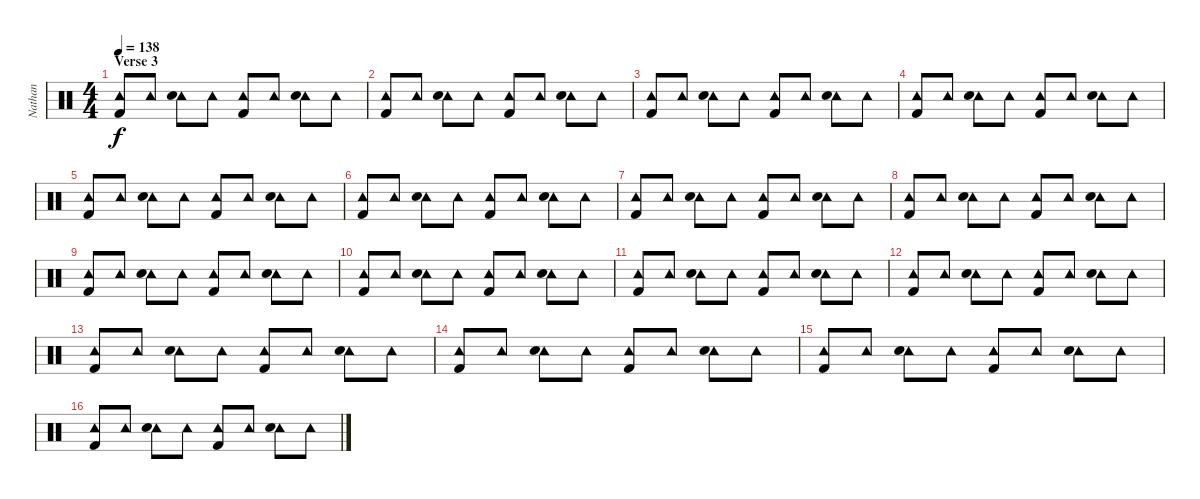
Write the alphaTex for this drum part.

\track ("Nathan" "Nathan") {instrument percussion}
\staff {score}
\articulation defaults
\ts (4 4)
\section ("" "Verse 3")
\tempo 138
\clef neutral
\ks c
("Tambourine (hit)" "Kick (hit) 2").8{dy f} "Tambourine (hit)".8 ("Tambourine (hit)" "Electric Snare (hit)").8 "Tambourine (hit)".8 ("Tambourine (hit)" "Kick (hit) 2").8 "Tambourine (hit)".8 ("Tambourine (hit)" "Electric Snare (hit)").8 "Tambourine (hit)".8 |
("Tambourine (hit)" "Kick (hit) 2").8 "Tambourine (hit)".8 ("Tambourine (hit)" "Electric Snare (hit)").8 "Tambourine (hit)".8 ("Tambourine (hit)" "Kick (hit) 2").8 "Tambourine (hit)".8 ("Tambourine (hit)" "Electric Snare (hit)").8 "Tambourine (hit)".8 |
("Tambourine (hit)" "Kick (hit) 2").8 "Tambourine (hit)".8 ("Tambourine (hit)" "Electric Snare (hit)").8 "Tambourine (hit)".8 ("Tambourine (hit)" "Kick (hit) 2").8 "Tambourine (hit)".8 ("Tambourine (hit)" "Electric Snare (hit)").8 "Tambourine (hit)".8 |
("Tambourine (hit)" "Kick (hit) 2").8 "Tambourine (hit)".8 ("Tambourine (hit)" "Electric Snare (hit)").8 "Tambourine (hit)".8 ("Tambourine (hit)" "Kick (hit) 2").8 "Tambourine (hit)".8 ("Tambourine (hit)" "Electric Snare (hit)").8 "Tambourine (hit)".8 |
("Tambourine (hit)" "Kick (hit) 2").8 "Tambourine (hit)".8 ("Tambourine (hit)" "Electric Snare (hit)").8 "Tambourine (hit)".8 ("Tambourine (hit)" "Kick (hit) 2").8 "Tambourine (hit)".8 ("Tambourine (hit)" "Electric Snare (hit)").8 "Tambourine (hit)".8 |
("Tambourine (hit)" "Kick (hit) 2").8 "Tambourine (hit)".8 ("Tambourine (hit)" "Electric Snare (hit)").8 "Tambourine (hit)".8 ("Tambourine (hit)" "Kick (hit) 2").8 "Tambourine (hit)".8 ("Tambourine (hit)" "Electric Snare (hit)").8 "Tambourine (hit)".8 |
("Tambourine (hit)" "Kick (hit) 2").8 "Tambourine (hit)".8 ("Tambourine (hit)" "Electric Snare (hit)").8 "Tambourine (hit)".8 ("Tambourine (hit)" "Kick (hit) 2").8 "Tambourine (hit)".8 ("Tambourine (hit)" "Electric Snare (hit)").8 "Tambourine (hit)".8 |
("Tambourine (hit)" "Kick (hit) 2").8 "Tambourine (hit)".8 ("Tambourine (hit)" "Electric Snare (hit)").8 "Tambourine (hit)".8 ("Tambourine (hit)" "Kick (hit) 2").8 "Tambourine (hit)".8 ("Tambourine (hit)" "Electric Snare (hit)").8 "Tambourine (hit)".8 |
("Tambourine (hit)" "Kick (hit) 2").8 "Tambourine (hit)".8 ("Tambourine (hit)" "Electric Snare (hit)").8 "Tambourine (hit)".8 ("Tambourine (hit)" "Kick (hit) 2").8 "Tambourine (hit)".8 ("Tambourine (hit)" "Electric Snare (hit)").8 "Tambourine (hit)".8 |
("Tambourine (hit)" "Kick (hit) 2").8 "Tambourine (hit)".8 ("Tambourine (hit)" "Electric Snare (hit)").8 "Tambourine (hit)".8 ("Tambourine (hit)" "Kick (hit) 2").8 "Tambourine (hit)".8 ("Tambourine (hit)" "Electric Snare (hit)").8 "Tambourine (hit)".8 |
("Tambourine (hit)" "Kick (hit) 2").8 "Tambourine (hit)".8 ("Tambourine (hit)" "Electric Snare (hit)").8 "Tambourine (hit)".8 ("Tambourine (hit)" "Kick (hit) 2").8 "Tambourine (hit)".8 ("Tambourine (hit)" "Electric Snare (hit)").8 "Tambourine (hit)".8 |
("Tambourine (hit)" "Kick (hit) 2").8 "Tambourine (hit)".8 ("Tambourine (hit)" "Electric Snare (hit)").8 "Tambourine (hit)".8 ("Tambourine (hit)" "Kick (hit) 2").8 "Tambourine (hit)".8 ("Tambourine (hit)" "Electric Snare (hit)").8 "Tambourine (hit)".8 |
("Tambourine (hit)" "Kick (hit) 2").8 "Tambourine (hit)".8 ("Tambourine (hit)" "Electric Snare (hit)").8 "Tambourine (hit)".8 ("Tambourine (hit)" "Kick (hit) 2").8 "Tambourine (hit)".8 ("Tambourine (hit)" "Electric Snare (hit)").8 "Tambourine (hit)".8 |
("Tambourine (hit)" "Kick (hit) 2").8 "Tambourine (hit)".8 ("Tambourine (hit)" "Electric Snare (hit)").8 "Tambourine (hit)".8 ("Tambourine (hit)" "Kick (hit) 2").8 "Tambourine (hit)".8 ("Tambourine (hit)" "Electric Snare (hit)").8 "Tambourine (hit)".8 |
("Tambourine (hit)" "Kick (hit) 2").8 "Tambourine (hit)".8 ("Tambourine (hit)" "Electric Snare (hit)").8 "Tambourine (hit)".8 ("Tambourine (hit)" "Kick (hit) 2").8 "Tambourine (hit)".8 ("Tambourine (hit)" "Electric Snare (hit)").8 "Tambourine (hit)".8 |
("Tambourine (hit)" "Kick (hit) 2").8 "Tambourine (hit)".8 ("Tambourine (hit)" "Electric Snare (hit)").8 "Tambourine (hit)".8 ("Tambourine (hit)" "Kick (hit) 2").8 "Tambourine (hit)".8 ("Tambourine (hit)" "Electric Snare (hit)").8 "Tambourine (hit)".8
